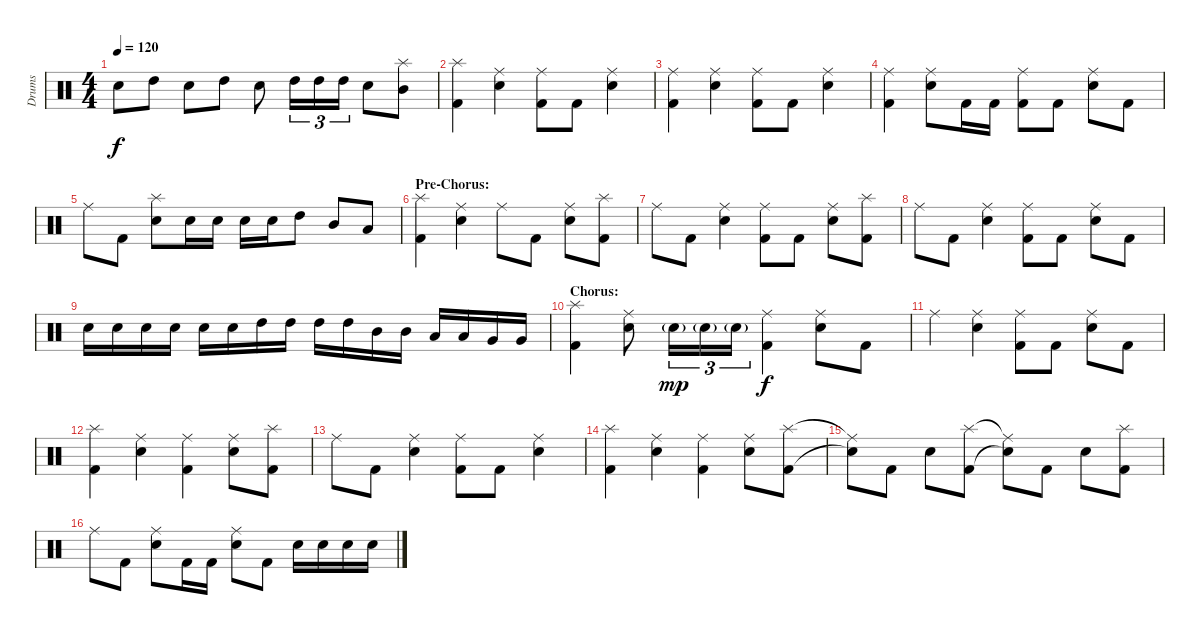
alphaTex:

\track ("Drums" "Drums") {instrument percussion}
\staff {score}
\articulation defaults
\ts (4 4)
\tempo 120
\clef neutral
\ks c "Electric Snare (hit)".8{dy f} "High Tom (hit)".8 "Electric Snare (hit)".8 "High Tom (hit)".8 "Electric Snare (hit)".8 "High Tom (hit)".16{tu (3 2)} "High Tom (hit)".16{tu (3 2)} "High Tom (hit)".16{tu (3 2)} "Electric Snare (hit)".8
("Splash (hit)" "Mid Tom (hit)").8 |
("Splash (hit)" "Kick (hit) 2").4 ("Ride (middle)" "Electric Snare (hit)").4 ("Ride (middle)" "Kick (hit) 2").8 "Kick (hit) 2".8 ("Ride (middle)" "Electric Snare (hit)").4 |
("Ride (middle)" "Kick (hit) 2").4 ("Ride (middle)" "Electric Snare (hit)").4 ("Ride (middle)" "Kick (hit) 2").8 "Kick (hit) 2".8 ("Ride (middle)" "Electric Snare (hit)").4 |
("Ride (middle)" "Kick (hit) 2").4 ("Ride (middle)" "Electric Snare (hit)").8 "Kick (hit) 2".16 "Kick (hit) 2".16 ("Ride (middle)" "Kick (hit) 2").8 "Kick (hit) 2".8 ("Ride (middle)" "Electric Snare (hit)").8 "Kick (hit) 2".8 |
"Ride (middle)".8 "Kick (hit) 2".8 ("Splash (hit)" "Electric Snare (hit)").8 "Electric Snare (hit)".16 "Electric Snare (hit)".16 "Electric Snare (hit)".16 "Electric Snare (hit)".16 "High Tom (hit)".8 "Mid Tom (hit)".8 "Low Tom (hit)".8 |
\section ("" "Pre-Chorus:")
("Splash (hit)" "Kick (hit) 2").4 ("Ride (middle)" "Electric Snare (hit)").4 "Ride (middle)".8 "Kick (hit) 2".8 ("Ride (middle)" "Electric Snare (hit)").8 ("Splash (hit)" "Kick (hit) 2").8 |
"Ride (middle)".8 "Kick (hit) 2".8 ("Ride (middle)" "Electric Snare (hit)").4 ("Ride (middle)" "Kick (hit) 2").8 "Kick (hit) 2".8 ("Ride (middle)" "Electric Snare (hit)").8 ("Splash (hit)" "Kick (hit) 2").8 |
"Ride (middle)".8 "Kick (hit) 2".8 ("Ride (middle)" "Electric Snare (hit)").4 ("Ride (middle)" "Kick (hit) 2").8 "Kick (hit) 2".8 ("Ride (middle)" "Electric Snare (hit)").8 "Kick (hit) 2".8 |
"Electric Snare (hit)".16 "Electric Snare (hit)".16 "Electric Snare (hit)".16 "Electric Snare (hit)".16 "Electric Snare (hit)".16 "Electric Snare (hit)".16 "High Tom (hit)".16 "High Tom (hit)".16 "High Tom (hit)".16 "High Tom (hit)".16 "Mid Tom (hit)".16 "Mid Tom (hit)".16 "Low Tom (hit)".16 "Low Tom (hit)".16 "Very Low Tom (hit)".16 "Very Low Tom (hit)".16 |
\section ("" "Chorus:")
("Splash (hit)" "Kick (hit) 2").4 ("Ride (middle)" "Electric Snare (hit)").8 "Electric Snare (hit)"{g}.16{tu (3 2) dy mp} "Electric Snare (hit)"{g}.16{tu (3 2)} "Electric Snare (hit)"{g}.16{tu (3 2)} ("Ride (middle)" "Kick (hit) 2").4{dy f} ("Ride (middle)" "Electric Snare (hit)").8 "Kick (hit) 2".8 |
"Ride (middle)".4 ("Ride (middle)" "Electric Snare (hit)").4 ("Ride (middle)" "Kick (hit) 2").8 "Kick (hit) 2".8 ("Ride (middle)" "Electric Snare (hit)").8 "Kick (hit) 2".8 |
("Splash (hit)" "Kick (hit) 2").4 ("Ride (middle)" "Electric Snare (hit)").4 ("Ride (middle)" "Kick (hit) 2").4 ("Ride (middle)" "Electric Snare (hit)").8 ("Splash (hit)" "Kick (hit) 2").8 |
"Ride (middle)".8 "Kick (hit) 2".8 ("Ride (middle)" "Electric Snare (hit)").4 ("Ride (middle)" "Kick (hit) 2").8 "Kick (hit) 2".8 ("Ride (middle)" "Electric Snare (hit)").4 |
("Splash (hit)" "Kick (hit) 2").4 ("Ride (middle)" "Electric Snare (hit)").4 ("Ride (middle)" "Kick (hit) 2").4 ("Ride (middle)" "Electric Snare (hit)").8 ("Splash (hit)" "Kick (hit) 2").8 |
("Ride (middle)"{t} "Snare (hit)"{t}).8 "Kick (hit) 2".8 "Electric Snare (hit)".8 ("Splash (hit)" "Kick (hit) 2").8 ("Ride (middle)"{t} "Snare (hit)"{t}).8 "Kick (hit) 2".8 "Electric Snare (hit)".8 ("Splash (hit)" "Kick (hit) 2").8 |
"Ride (middle)".8 "Kick (hit) 2".8 ("Ride (middle)" "Electric Snare (hit)").8 "Kick (hit) 2".16 "Kick (hit) 2".16 ("Ride (middle)" "Electric Snare (hit)").8 "Kick (hit) 2".8 "Electric Snare (hit)".16 "Electric Snare (hit)".16 "Electric Snare (hit)".16 "Electric Snare (hit)".16
